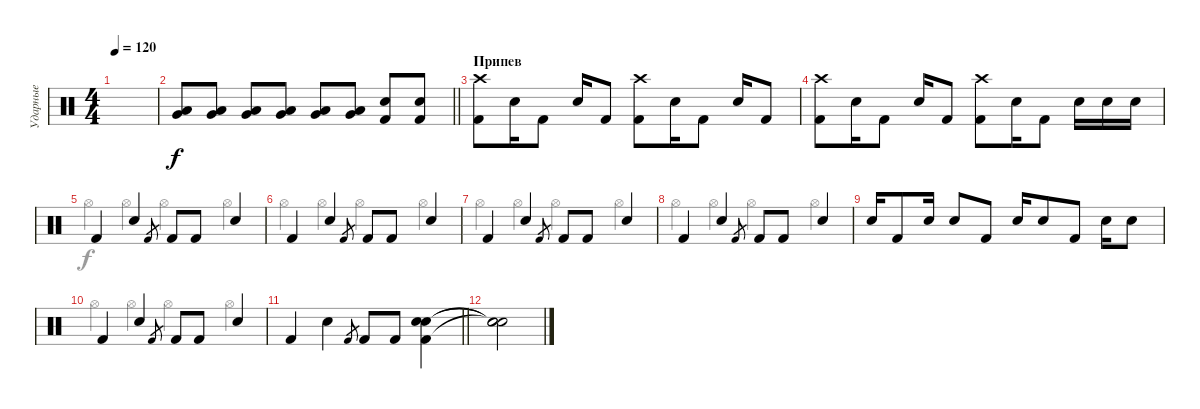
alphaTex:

\track ("Ударные" "Ударные") {instrument percussion}
\staff {score}
\articulation defaults
\voice
\ts (4 4)
\tempo 120
\clef neutral
\ks c
|
\barLineRight lightlight
("Very Low Tom (hit)" "Low Tom (hit)").8 ("Very Low Tom (hit)" "Low Tom (hit)").8 ("Very Low Tom (hit)" "Low Tom (hit)").8 ("Very Low Tom (hit)" "Low Tom (hit)").8 ("Very Low Tom (hit)" "Low Tom (hit)").8 ("Very Low Tom (hit)" "Low Tom (hit)").8 ("Electric Snare (hit)" "Kick (hit) 2").8 ("Electric Snare (hit)" "Kick (hit) 2").8 |
\section ("" "Припев")
("Crash high (hit)" "Kick (hit) 2").8 "Electric Snare (hit)".16 "Kick (hit) 2".8 "Electric Snare (hit)".16 "Kick (hit) 2".8 ("Crash high (hit)" "Kick (hit) 2").8 "Electric Snare (hit)".16 "Kick (hit) 2".8 "Electric Snare (hit)".16 "Kick (hit) 2".8 |
("Crash high (hit)" "Kick (hit) 2").8 "Electric Snare (hit)".16 "Kick (hit) 2".8 "Electric Snare (hit)".16 "Kick (hit) 2".8 ("Crash high (hit)" "Kick (hit) 2").8 "Electric Snare (hit)".16 "Kick (hit) 2".8 "Electric Snare (hit)".16 "Electric Snare (hit)".16 "Electric Snare (hit)".16 |
"Kick (hit) 2".4 "Electric Snare (hit)".4 "Kick (hit) 2".8{gr} "Kick (hit) 2".8 "Kick (hit) 2".8 "Electric Snare (hit)".4 |
"Kick (hit) 2".4 "Electric Snare (hit)".4 "Kick (hit) 2".8{gr} "Kick (hit) 2".8 "Kick (hit) 2".8 "Electric Snare (hit)".4 |
"Kick (hit) 2".4 "Electric Snare (hit)".4 "Kick (hit) 2".8{gr} "Kick (hit) 2".8 "Kick (hit) 2".8 "Electric Snare (hit)".4 |
"Kick (hit) 2".4 "Electric Snare (hit)".4 "Kick (hit) 2".8{gr} "Kick (hit) 2".8 "Kick (hit) 2".8 "Electric Snare (hit)".4 |
"Electric Snare (hit)".16 "Kick (hit) 2".8 "Electric Snare (hit)".16 "Electric Snare (hit)".8 "Kick (hit) 2".8 "Electric Snare (hit)".16 "Electric Snare (hit)".8 "Kick (hit) 2".8 "Electric Snare (hit)".16 "Electric Snare (hit)".8 |
"Kick (hit) 2".4 "Electric Snare (hit)".4 "Kick (hit) 2".8{gr} "Kick (hit) 2".8 "Kick (hit) 2".8 "Electric Snare (hit)".4 |
\barLineRight lightlight "Kick (hit) 2".4 "Electric Snare (hit)".4 "Kick (hit) 2".8{gr} "Kick (hit) 2".8 "Kick (hit) 2".8
("Snare (hit) 2" "Electric Snare (hit)" "Kick (hit) 2").4 |
("Snare (hit)"{t} "Snare (hit)"{t} "Snare (hit)"{t}).2
\voice
\clef neutral
\ottava regular
\simile none
\ks c
|
\barLineRight lightlight
|
|
|
"Hi-Hat (open)".4 "Hi-Hat (open)".4 "Hi-Hat (open)".4 "Hi-Hat (open)".4 |
"Hi-Hat (open)".4 "Hi-Hat (open)".4 "Hi-Hat (open)".4 "Hi-Hat (open)".4 |
"Hi-Hat (open)".4 "Hi-Hat (open)".4 "Hi-Hat (open)".4 "Hi-Hat (open)".4 |
"Hi-Hat (open)".4 "Hi-Hat (open)".4 "Hi-Hat (open)".4 "Hi-Hat (open)".4 |
|
"Hi-Hat (open)".4 "Hi-Hat (open)".4 "Hi-Hat (open)".4 "Hi-Hat (open)".4 |
\barLineRight lightlight
|
